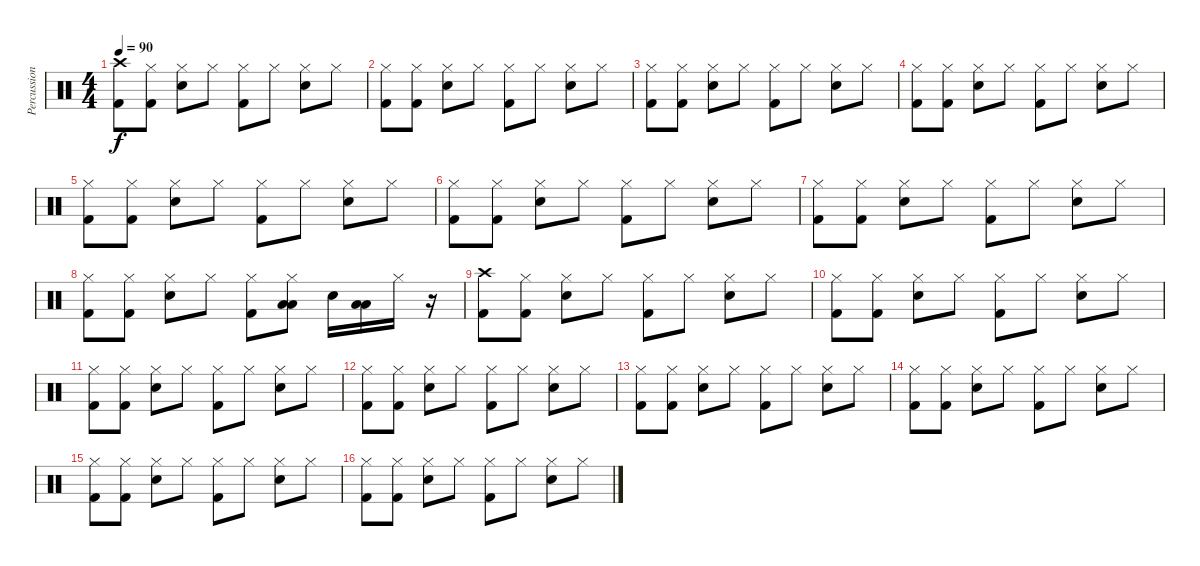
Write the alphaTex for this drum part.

\track ("Percussion" "Percussion") {instrument percussion}
\staff {score}
\articulation defaults
\ts (4 4)
\tempo 90
\clef neutral
\ks c
("Crash high (hit)" "Kick (hit) 2").8{dy f} ("Hi-Hat (closed)" "Kick (hit) 2").8 ("Hi-Hat (closed)" "Snare (hit) 2").8 "Hi-Hat (closed)".8 ("Hi-Hat (closed)" "Kick (hit) 2").8 "Hi-Hat (closed)".8 ("Hi-Hat (closed)" "Snare (hit) 2").8 "Hi-Hat (closed)".8 |
("Hi-Hat (closed)" "Kick (hit) 2").8 ("Hi-Hat (closed)" "Kick (hit) 2").8 ("Hi-Hat (closed)" "Snare (hit) 2").8 "Hi-Hat (closed)".8 ("Hi-Hat (closed)" "Kick (hit) 2").8 "Hi-Hat (closed)".8 ("Hi-Hat (closed)" "Snare (hit) 2").8 "Hi-Hat (closed)".8 |
("Hi-Hat (closed)" "Kick (hit) 2").8 ("Hi-Hat (closed)" "Kick (hit) 2").8 ("Hi-Hat (closed)" "Snare (hit) 2").8 "Hi-Hat (closed)".8 ("Hi-Hat (closed)" "Kick (hit) 2").8 "Hi-Hat (closed)".8 ("Hi-Hat (closed)" "Snare (hit) 2").8 "Hi-Hat (closed)".8 |
("Hi-Hat (closed)" "Kick (hit) 2").8 ("Hi-Hat (closed)" "Kick (hit) 2").8 ("Hi-Hat (closed)" "Snare (hit) 2").8 "Hi-Hat (closed)".8 ("Hi-Hat (closed)" "Kick (hit) 2").8 "Hi-Hat (closed)".8 ("Hi-Hat (closed)" "Snare (hit) 2").8 "Hi-Hat (closed)".8 |
("Hi-Hat (closed)" "Kick (hit) 2").8 ("Hi-Hat (closed)" "Kick (hit) 2").8 ("Hi-Hat (closed)" "Snare (hit) 2").8 "Hi-Hat (closed)".8 ("Hi-Hat (closed)" "Kick (hit) 2").8 "Hi-Hat (closed)".8 ("Hi-Hat (closed)" "Snare (hit) 2").8 "Hi-Hat (closed)".8 |
("Hi-Hat (closed)" "Kick (hit) 2").8 ("Hi-Hat (closed)" "Kick (hit) 2").8 ("Hi-Hat (closed)" "Snare (hit) 2").8 "Hi-Hat (closed)".8 ("Hi-Hat (closed)" "Kick (hit) 2").8 "Hi-Hat (closed)".8 ("Hi-Hat (closed)" "Snare (hit) 2").8 "Hi-Hat (closed)".8 |
("Hi-Hat (closed)" "Kick (hit) 2").8 ("Hi-Hat (closed)" "Kick (hit) 2").8 ("Hi-Hat (closed)" "Snare (hit) 2").8 "Hi-Hat (closed)".8 ("Hi-Hat (closed)" "Kick (hit) 2").8 "Hi-Hat (closed)".8 ("Hi-Hat (closed)" "Snare (hit) 2").8 "Hi-Hat (closed)".8 |
("Hi-Hat (closed)" "Kick (hit) 2").8 ("Hi-Hat (closed)" "Kick (hit) 2").8 ("Hi-Hat (closed)" "Snare (hit) 2").8 "Hi-Hat (closed)".8 ("Hi-Hat (closed)" "Kick (hit) 2").8 ("Hi-Hat (closed)" "Low Tom (hit)" "Low Tom (hit)").8 "Snare (hit) 2".16 ("Low Floor Tom (hit)" "Low Floor Tom (hit)").16 "Hi-Hat (closed)".16 r.16 |
("Crash high (hit)" "Kick (hit) 2").8 ("Hi-Hat (closed)" "Kick (hit) 2").8 ("Hi-Hat (closed)" "Snare (hit) 2").8 "Hi-Hat (closed)".8 ("Hi-Hat (closed)" "Kick (hit) 2").8 "Hi-Hat (closed)".8 ("Hi-Hat (closed)" "Snare (hit) 2").8 "Hi-Hat (closed)".8 |
("Hi-Hat (closed)" "Kick (hit) 2").8 ("Hi-Hat (closed)" "Kick (hit) 2").8 ("Hi-Hat (closed)" "Snare (hit) 2").8 "Hi-Hat (closed)".8 ("Hi-Hat (closed)" "Kick (hit) 2").8 "Hi-Hat (closed)".8 ("Hi-Hat (closed)" "Snare (hit) 2").8 "Hi-Hat (closed)".8 |
("Hi-Hat (closed)" "Kick (hit) 2").8 ("Hi-Hat (closed)" "Kick (hit) 2").8 ("Hi-Hat (closed)" "Snare (hit) 2").8 "Hi-Hat (closed)".8 ("Hi-Hat (closed)" "Kick (hit) 2").8 "Hi-Hat (closed)".8 ("Hi-Hat (closed)" "Snare (hit) 2").8 "Hi-Hat (closed)".8 |
("Hi-Hat (closed)" "Kick (hit) 2").8 ("Hi-Hat (closed)" "Kick (hit) 2").8 ("Hi-Hat (closed)" "Snare (hit) 2").8 "Hi-Hat (closed)".8 ("Hi-Hat (closed)" "Kick (hit) 2").8 "Hi-Hat (closed)".8 ("Hi-Hat (closed)" "Snare (hit) 2").8 "Hi-Hat (closed)".8 |
("Hi-Hat (closed)" "Kick (hit) 2").8 ("Hi-Hat (closed)" "Kick (hit) 2").8 ("Hi-Hat (closed)" "Snare (hit) 2").8 "Hi-Hat (closed)".8 ("Hi-Hat (closed)" "Kick (hit) 2").8 "Hi-Hat (closed)".8 ("Hi-Hat (closed)" "Snare (hit) 2").8 "Hi-Hat (closed)".8 |
("Hi-Hat (closed)" "Kick (hit) 2").8 ("Hi-Hat (closed)" "Kick (hit) 2").8 ("Hi-Hat (closed)" "Snare (hit) 2").8 "Hi-Hat (closed)".8 ("Hi-Hat (closed)" "Kick (hit) 2").8 "Hi-Hat (closed)".8 ("Hi-Hat (closed)" "Snare (hit) 2").8 "Hi-Hat (closed)".8 |
("Hi-Hat (closed)" "Kick (hit) 2").8 ("Hi-Hat (closed)" "Kick (hit) 2").8 ("Hi-Hat (closed)" "Snare (hit) 2").8 "Hi-Hat (closed)".8 ("Hi-Hat (closed)" "Kick (hit) 2").8 "Hi-Hat (closed)".8 ("Hi-Hat (closed)" "Snare (hit) 2").8 "Hi-Hat (closed)".8 |
("Hi-Hat (closed)" "Kick (hit) 2").8 ("Hi-Hat (closed)" "Kick (hit) 2").8 ("Hi-Hat (closed)" "Snare (hit) 2").8 "Hi-Hat (closed)".8 ("Hi-Hat (closed)" "Kick (hit) 2").8 "Hi-Hat (closed)".8 ("Hi-Hat (closed)" "Snare (hit) 2").8 "Hi-Hat (closed)".8
